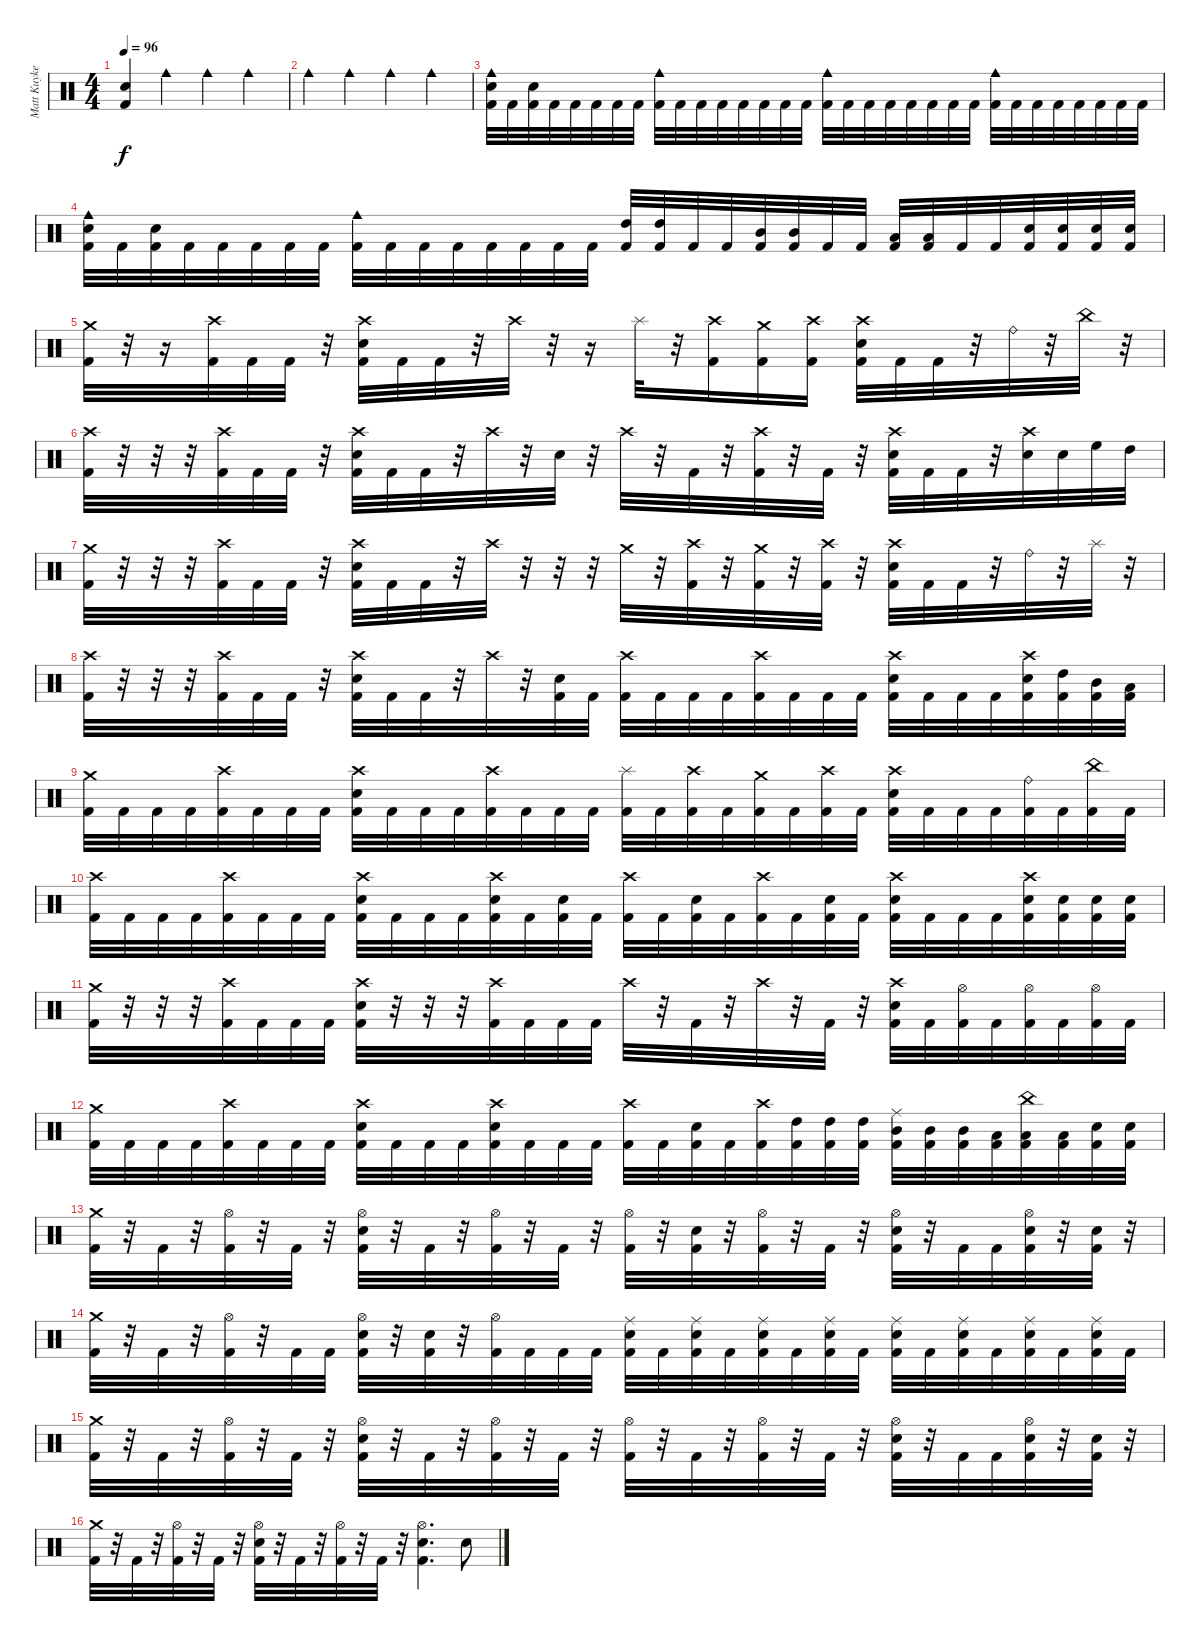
\track ("Matt Kuykendall" "Matt Kuyke") {instrument percussion}
\staff {score}
\articulation defaults
\ts (4 4)
\tempo 96
\clef neutral
\ks c
("Electric Snare (hit)" "Kick (hit) 2").4{bd 120 dy f} "Cowbell medium (hit)".4 "Cowbell medium (hit)".4 "Cowbell medium (hit)".4 |
"Cowbell medium (hit)".4 "Cowbell medium (hit)".4 "Cowbell medium (hit)".4 "Cowbell medium (hit)".4 |
("Cowbell medium (hit)" "Electric Snare (hit)" "Kick (hit) 2").32 "Kick (hit) 2".32 ("Electric Snare (hit)" "Kick (hit) 2").32 "Kick (hit) 2".32 "Kick (hit) 2".32 "Kick (hit) 2".32 "Kick (hit) 2".32 "Kick (hit) 2".32 ("Cowbell medium (hit)" "Kick (hit) 2").32 "Kick (hit) 2".32 "Kick (hit) 2".32 "Kick (hit) 2".32 "Kick (hit) 2".32 "Kick (hit) 2".32 "Kick (hit) 2".32 "Kick (hit) 2".32 ("Cowbell medium (hit)" "Kick (hit) 2").32 "Kick (hit) 2".32 "Kick (hit) 2".32 "Kick (hit) 2".32 "Kick (hit) 2".32 "Kick (hit) 2".32 "Kick (hit) 2".32 "Kick (hit) 2".32 ("Cowbell medium (hit)" "Kick (hit) 2").32 "Kick (hit) 2".32 "Kick (hit) 2".32 "Kick (hit) 2".32 "Kick (hit) 2".32 "Kick (hit) 2".32 "Kick (hit) 2".32 "Kick (hit) 2".32 |
("Cowbell medium (hit)" "Electric Snare (hit)" "Kick (hit) 2").32 "Kick (hit) 2".32 ("Electric Snare (hit)" "Kick (hit) 2").32 "Kick (hit) 2".32 "Kick (hit) 2".32 "Kick (hit) 2".32 "Kick (hit) 2".32 "Kick (hit) 2".32 ("Cowbell medium (hit)" "Kick (hit) 2").32 "Kick (hit) 2".32 "Kick (hit) 2".32 "Kick (hit) 2".32 "Kick (hit) 2".32 "Kick (hit) 2".32 "Kick (hit) 2".32 "Kick (hit) 2".32 ("High Tom (hit)" "Kick (hit) 2").32 ("High Tom (hit)" "Kick (hit) 2").32 "Kick (hit) 2".32 "Kick (hit) 2".32 ("Mid Tom (hit)" "Kick (hit) 2").32 ("Mid Tom (hit)" "Kick (hit) 2").32 "Kick (hit) 2".32 "Kick (hit) 2".32 ("Low Tom (hit)" "Kick (hit) 2").32 ("Low Tom (hit)" "Kick (hit) 2").32 "Kick (hit) 2".32 "Kick (hit) 2".32 ("Electric Snare (hit)" "Kick (hit) 2").32 ("Electric Snare (hit)" "Kick (hit) 2").32 ("Electric Snare (hit)" "Kick (hit) 2").32 ("Electric Snare (hit)" "Kick (hit) 2").32 |
("Crash medium (hit)" "Kick (hit) 2").32 r.32 r.16 ("Crash high (hit)" "Kick (hit) 2").32 "Kick (hit) 2".32 "Kick (hit) 2".32 r.32 ("Crash high (hit)" "Electric Snare (hit)" "Kick (hit) 2").32 "Kick (hit) 2".32 "Kick (hit) 2".32 r.32 "Crash high (hit)".32 r.32 r.16 "Splash (hit)".32 r.32 ("Crash high (hit)" "Kick (hit) 2").16 ("Crash medium (hit)" "Kick (hit) 2").16 ("Crash high (hit)" "Kick (hit) 2").16 ("Crash high (hit)" "Electric Snare (hit)" "Kick (hit) 2").32 "Kick (hit) 2".32 "Kick (hit) 2".32 r.32 "Ride (bell)".32 r.32 "China (hit)".32 r.32 |
("Crash high (hit)" "Kick (hit) 2").32 r.32 r.32 r.32 ("Crash high (hit)" "Kick (hit) 2").32 "Kick (hit) 2".32 "Kick (hit) 2".32 r.32 ("Crash high (hit)" "Electric Snare (hit)" "Kick (hit) 2").32 "Kick (hit) 2".32 "Kick (hit) 2".32 r.32 "Crash high (hit)".32 r.32 "Electric Snare (hit)".32 r.32 "Crash high (hit)".32 r.32 "Kick (hit) 2".32 r.32 ("Crash high (hit)" "Kick (hit) 2").32 r.32 "Kick (hit) 2".32 r.32 ("Crash high (hit)" "Electric Snare (hit)" "Kick (hit) 2").32 "Kick (hit) 2".32 "Kick (hit) 2".32 r.32 ("Crash high (hit)" "Electric Snare (hit)").32 "Electric Snare (hit)".32 "High Floor Tom (hit)".32 "High Tom (hit)".32 |
("Crash medium (hit)" "Kick (hit) 2").32 r.32 r.32 r.32 ("Crash high (hit)" "Kick (hit) 2").32 "Kick (hit) 2".32 "Kick (hit) 2".32 r.32 ("Crash high (hit)" "Electric Snare (hit)" "Kick (hit) 2").32 "Kick (hit) 2".32 "Kick (hit) 2".32 r.32 "Crash high (hit)".32 r.32 r.32 r.32 "Crash medium (hit)".32 r.32 ("Crash high (hit)" "Kick (hit) 2").32 r.32 ("Crash medium (hit)" "Kick (hit) 2").32 r.32 ("Crash high (hit)" "Kick (hit) 2").32 r.32 ("Crash high (hit)" "Electric Snare (hit)" "Kick (hit) 2").32 "Kick (hit) 2".32 "Kick (hit) 2".32 r.32 "Ride (bell)".32 r.32 "Splash (hit)".32 r.32 |
("Crash high (hit)" "Kick (hit) 2").32 r.32 r.32 r.32 ("Crash high (hit)" "Kick (hit) 2").32 "Kick (hit) 2".32 "Kick (hit) 2".32 r.32 ("Crash high (hit)" "Electric Snare (hit)" "Kick (hit) 2").32 "Kick (hit) 2".32 "Kick (hit) 2".32 r.32 "Crash high (hit)".32 r.32 ("Electric Snare (hit)" "Kick (hit) 2").32 "Kick (hit) 2".32 ("Crash high (hit)" "Kick (hit) 2").32 "Kick (hit) 2".32 "Kick (hit) 2".32 "Kick (hit) 2".32 ("Crash high (hit)" "Kick (hit) 2").32 "Kick (hit) 2".32 "Kick (hit) 2".32 "Kick (hit) 2".32 ("Crash high (hit)" "Electric Snare (hit)" "Kick (hit) 2").32 "Kick (hit) 2".32 "Kick (hit) 2".32 "Kick (hit) 2".32 ("Crash high (hit)" "Electric Snare (hit)" "Kick (hit) 2").32 ("High Tom (hit)" "Kick (hit) 2").32 ("Mid Tom (hit)" "Kick (hit) 2").32 ("Low Tom (hit)" "Kick (hit) 2").32 |
("Crash medium (hit)" "Kick (hit) 2").32 "Kick (hit) 2".32 "Kick (hit) 2".32 "Kick (hit) 2".32 ("Crash high (hit)" "Kick (hit) 2").32 "Kick (hit) 2".32 "Kick (hit) 2".32 "Kick (hit) 2".32 ("Crash high (hit)" "Electric Snare (hit)" "Kick (hit) 2").32 "Kick (hit) 2".32 "Kick (hit) 2".32 "Kick (hit) 2".32 ("Crash high (hit)" "Kick (hit) 2").32 "Kick (hit) 2".32 "Kick (hit) 2".32 "Kick (hit) 2".32 ("Splash (hit)" "Kick (hit) 2").32 "Kick (hit) 2".32 ("Crash high (hit)" "Kick (hit) 2").32 "Kick (hit) 2".32 ("Crash medium (hit)" "Kick (hit) 2").32 "Kick (hit) 2".32 ("Crash high (hit)" "Kick (hit) 2").32 "Kick (hit) 2".32 ("Crash high (hit)" "Electric Snare (hit)" "Kick (hit) 2").32 "Kick (hit) 2".32 "Kick (hit) 2".32 "Kick (hit) 2".32 ("Ride (bell)" "Kick (hit) 2").32 "Kick (hit) 2".32 ("China (hit)" "Kick (hit) 2").32 "Kick (hit) 2".32 |
("Crash high (hit)" "Kick (hit) 2").32 "Kick (hit) 2".32 "Kick (hit) 2".32 "Kick (hit) 2".32 ("Crash high (hit)" "Kick (hit) 2").32 "Kick (hit) 2".32 "Kick (hit) 2".32 "Kick (hit) 2".32 ("Crash high (hit)" "Electric Snare (hit)" "Kick (hit) 2").32 "Kick (hit) 2".32 "Kick (hit) 2".32 "Kick (hit) 2".32 ("Crash high (hit)" "Electric Snare (hit)" "Kick (hit) 2").32 "Kick (hit) 2".32 ("Electric Snare (hit)" "Kick (hit) 2").32 "Kick (hit) 2".32 ("Crash high (hit)" "Kick (hit) 2").32 "Kick (hit) 2".32 ("Electric Snare (hit)" "Kick (hit) 2").32 "Kick (hit) 2".32 ("Crash high (hit)" "Kick (hit) 2").32 "Kick (hit) 2".32 ("Electric Snare (hit)" "Kick (hit) 2").32 "Kick (hit) 2".32 ("Crash high (hit)" "Electric Snare (hit)" "Kick (hit) 2").32 "Kick (hit) 2".32 "Kick (hit) 2".32 "Kick (hit) 2".32 ("Crash high (hit)" "Electric Snare (hit)" "Kick (hit) 2").32 ("Electric Snare (hit)" "Kick (hit) 2").32 ("Electric Snare (hit)" "Kick (hit) 2").32 ("Electric Snare (hit)" "Kick (hit) 2").32 |
("Crash medium (hit)" "Kick (hit) 2").32 r.32 r.32 r.32 ("Crash high (hit)" "Kick (hit) 2").32 "Kick (hit) 2".32 "Kick (hit) 2".32 "Kick (hit) 2".32 ("Crash high (hit)" "Electric Snare (hit)" "Kick (hit) 2").32 r.32 r.32 r.32 ("Crash high (hit)" "Kick (hit) 2").32 "Kick (hit) 2".32 "Kick (hit) 2".32 "Kick (hit) 2".32 "Crash high (hit)".32 r.32 "Kick (hit) 2".32 r.32 "Crash high (hit)".32 r.32 "Kick (hit) 2".32 r.32 ("Crash high (hit)" "Electric Snare (hit)" "Kick (hit) 2").32 "Kick (hit) 2".32 ("Hi-Hat (open)" "Kick (hit) 2").32 "Kick (hit) 2".32 ("Hi-Hat (open)" "Kick (hit) 2").32 "Kick (hit) 2".32 ("Hi-Hat (open)" "Kick (hit) 2").32 "Kick (hit) 2".32 |
("Crash medium (hit)" "Kick (hit) 2").32 "Kick (hit) 2".32 "Kick (hit) 2".32 "Kick (hit) 2".32 ("Crash high (hit)" "Kick (hit) 2").32 "Kick (hit) 2".32 "Kick (hit) 2".32 "Kick (hit) 2".32 ("Crash high (hit)" "Electric Snare (hit)" "Kick (hit) 2").32 "Kick (hit) 2".32 "Kick (hit) 2".32 "Kick (hit) 2".32 ("Crash high (hit)" "Electric Snare (hit)" "Kick (hit) 2").32 "Kick (hit) 2".32 "Kick (hit) 2".32 "Kick (hit) 2".32 ("Crash high (hit)" "Kick (hit) 2").32 "Kick (hit) 2".32 ("Electric Snare (hit)" "Kick (hit) 2").32 "Kick (hit) 2".32 ("Crash high (hit)" "Kick (hit) 2").32 ("High Tom (hit)" "Kick (hit) 2").32 ("High Tom (hit)" "Kick (hit) 2").32 ("High Tom (hit)" "Kick (hit) 2").32 ("Ride (middle)" "Mid Tom (hit)" "Kick (hit) 2").32 ("Mid Tom (hit)" "Kick (hit) 2").32 ("Mid Tom (hit)" "Kick (hit) 2").32 ("Low Tom (hit)" "Kick (hit) 2").32 ("China (hit)" "Low Tom (hit)" "Kick (hit) 2").32 ("Low Tom (hit)" "Kick (hit) 2").32 ("Electric Snare (hit)" "Kick (hit) 2").32 ("Electric Snare (hit)" "Kick (hit) 2").32 |
("Crash medium (hit)" "Kick (hit) 2").32 r.32 "Kick (hit) 2".32 r.32 ("Hi-Hat (open)" "Kick (hit) 2").32 r.32 "Kick (hit) 2".32 r.32 ("Hi-Hat (open)" "Electric Snare (hit)" "Kick (hit) 2").32 r.32 "Kick (hit) 2".32 r.32 ("Hi-Hat (open)" "Kick (hit) 2").32 r.32 "Kick (hit) 2".32 r.32 ("Hi-Hat (open)" "Kick (hit) 2").32 r.32 ("Electric Snare (hit)" "Kick (hit) 2").32 r.32 ("Hi-Hat (open)" "Kick (hit) 2").32 r.32 "Kick (hit) 2".32 r.32 ("Hi-Hat (open)" "Electric Snare (hit)" "Kick (hit) 2").32 r.32 "Kick (hit) 2".32 "Kick (hit) 2".32 ("Hi-Hat (open)" "Electric Snare (hit)" "Kick (hit) 2").32 r.32 ("Electric Snare (hit)" "Kick (hit) 2").32 r.32 |
("Crash medium (hit)" "Kick (hit) 2").32 r.32 "Kick (hit) 2".32 r.32 ("Hi-Hat (open)" "Kick (hit) 2").32 r.32 "Kick (hit) 2".32 "Kick (hit) 2".32 ("Hi-Hat (open)" "Electric Snare (hit)" "Kick (hit) 2").32 r.32 ("Electric Snare (hit)" "Kick (hit) 2").32 r.32 ("Hi-Hat (open)" "Kick (hit) 2").32 "Kick (hit) 2".32 "Kick (hit) 2".32 "Kick (hit) 2".32 ("Ride (middle)" "Electric Snare (hit)" "Kick (hit) 2").32 "Kick (hit) 2".32 ("Ride (middle)" "Electric Snare (hit)" "Kick (hit) 2").32 "Kick (hit) 2".32 ("Ride (middle)" "Electric Snare (hit)" "Kick (hit) 2").32 "Kick (hit) 2".32 ("Ride (middle)" "Electric Snare (hit)" "Kick (hit) 2").32 "Kick (hit) 2".32 ("Ride (middle)" "Electric Snare (hit)" "Kick (hit) 2").32 "Kick (hit) 2".32 ("Ride (middle)" "Electric Snare (hit)" "Kick (hit) 2").32 "Kick (hit) 2".32 ("Ride (middle)" "Electric Snare (hit)" "Kick (hit) 2").32 "Kick (hit) 2".32 ("Ride (middle)" "Electric Snare (hit)" "Kick (hit) 2").32 "Kick (hit) 2".32 |
("Crash medium (hit)" "Kick (hit) 2").32 r.32 "Kick (hit) 2".32 r.32 ("Hi-Hat (open)" "Kick (hit) 2").32 r.32 "Kick (hit) 2".32 r.32 ("Hi-Hat (open)" "Electric Snare (hit)" "Kick (hit) 2").32 r.32 "Kick (hit) 2".32 r.32 ("Hi-Hat (open)" "Kick (hit) 2").32 r.32 "Kick (hit) 2".32 r.32 ("Hi-Hat (open)" "Kick (hit) 2").32 r.32 "Kick (hit) 2".32 r.32 ("Hi-Hat (open)" "Kick (hit) 2").32 r.32 "Kick (hit) 2".32 r.32 ("Hi-Hat (open)" "Electric Snare (hit)" "Kick (hit) 2").32 r.32 "Kick (hit) 2".32 "Kick (hit) 2".32 ("Hi-Hat (open)" "Electric Snare (hit)" "Kick (hit) 2").32 r.32 ("Electric Snare (hit)" "Kick (hit) 2").32 r.32 |
("Crash medium (hit)" "Kick (hit) 2").32 r.32 "Kick (hit) 2".32 r.32 ("Hi-Hat (open)" "Kick (hit) 2").32 r.32 "Kick (hit) 2".32 r.32 ("Hi-Hat (open)" "Electric Snare (hit)" "Kick (hit) 2").32 r.32 "Kick (hit) 2".32 r.32 ("Hi-Hat (open)" "Kick (hit) 2").32 r.32 "Kick (hit) 2".32 r.32 ("Hi-Hat (open)" "Electric Snare (hit)" "Kick (hit) 2").4{d} "Electric Snare (hit)".8
